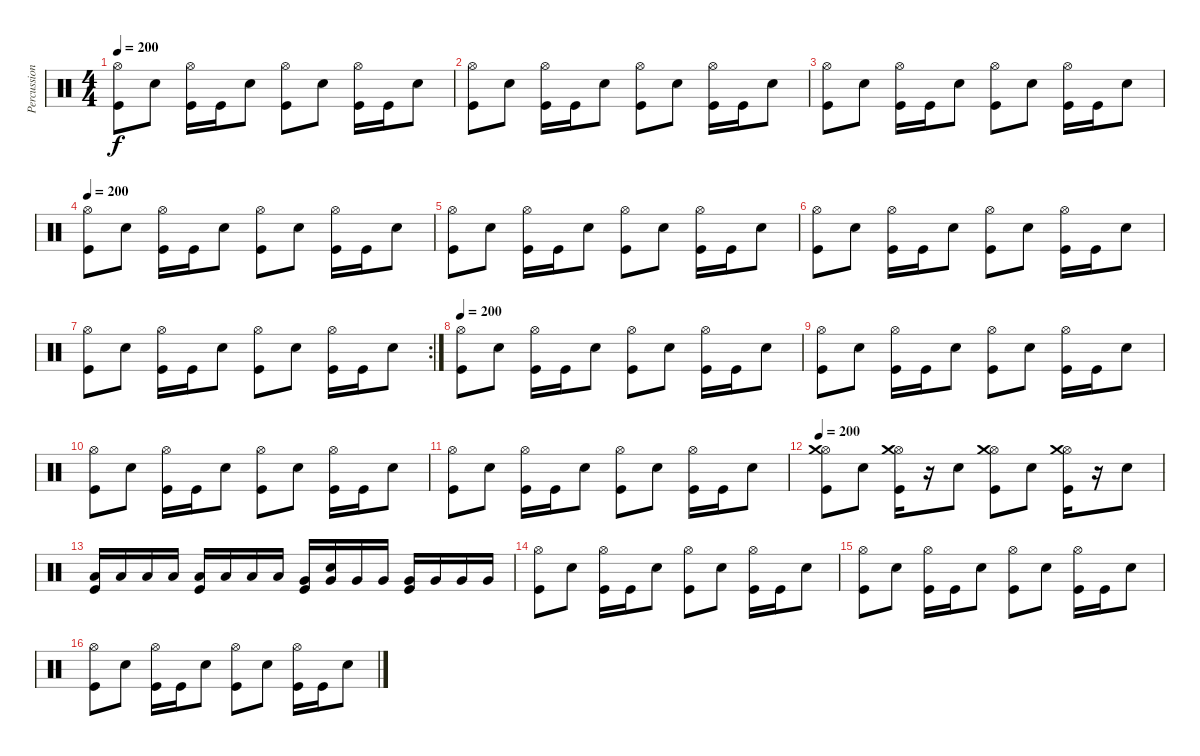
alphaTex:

\track ("Percussion" "Percussion") {instrument percussion}
\staff {score}
\articulation defaults
\ts (4 4)
\tempo 200
\clef neutral
\ks c
("Hi-Hat (open)" "Kick (hit)").8{dy f} "Electric Snare (hit)".8 ("Hi-Hat (open)" "Kick (hit)").16 "Kick (hit)".16 "Electric Snare (hit)".8 ("Hi-Hat (open)" "Kick (hit)").8 "Electric Snare (hit)".8 ("Hi-Hat (open)" "Kick (hit)").16 "Kick (hit)".16 "Electric Snare (hit)".8 |
("Hi-Hat (open)" "Kick (hit)").8 "Electric Snare (hit)".8 ("Hi-Hat (open)" "Kick (hit)").16 "Kick (hit)".16 "Electric Snare (hit)".8 ("Hi-Hat (open)" "Kick (hit)").8 "Electric Snare (hit)".8 ("Hi-Hat (open)" "Kick (hit)").16 "Kick (hit)".16 "Electric Snare (hit)".8 |
("Hi-Hat (open)" "Kick (hit)").8 "Electric Snare (hit)".8 ("Hi-Hat (open)" "Kick (hit)").16 "Kick (hit)".16 "Electric Snare (hit)".8 ("Hi-Hat (open)" "Kick (hit)").8 "Electric Snare (hit)".8 ("Hi-Hat (open)" "Kick (hit)").16 "Kick (hit)".16 "Electric Snare (hit)".8 |
\tempo 200
("Hi-Hat (open)" "Kick (hit)").8 "Electric Snare (hit)".8 ("Hi-Hat (open)" "Kick (hit)").16 "Kick (hit)".16 "Electric Snare (hit)".8 ("Hi-Hat (open)" "Kick (hit)").8 "Electric Snare (hit)".8 ("Hi-Hat (open)" "Kick (hit)").16 "Kick (hit)".16 "Electric Snare (hit)".8 |
("Hi-Hat (open)" "Kick (hit)").8 "Electric Snare (hit)".8 ("Hi-Hat (open)" "Kick (hit)").16 "Kick (hit)".16 "Electric Snare (hit)".8 ("Hi-Hat (open)" "Kick (hit)").8 "Electric Snare (hit)".8 ("Hi-Hat (open)" "Kick (hit)").16 "Kick (hit)".16 "Electric Snare (hit)".8 |
("Hi-Hat (open)" "Kick (hit)").8 "Electric Snare (hit)".8 ("Hi-Hat (open)" "Kick (hit)").16 "Kick (hit)".16 "Electric Snare (hit)".8 ("Hi-Hat (open)" "Kick (hit)").8 "Electric Snare (hit)".8 ("Hi-Hat (open)" "Kick (hit)").16 "Kick (hit)".16 "Electric Snare (hit)".8 |
\rc 2
("Hi-Hat (open)" "Kick (hit)").8 "Electric Snare (hit)".8 ("Hi-Hat (open)" "Kick (hit)").16 "Kick (hit)".16 "Electric Snare (hit)".8 ("Hi-Hat (open)" "Kick (hit)").8 "Electric Snare (hit)".8 ("Hi-Hat (open)" "Kick (hit)").16 "Kick (hit)".16 "Electric Snare (hit)".8 |
\tempo 200
("Hi-Hat (open)" "Kick (hit)").8 "Electric Snare (hit)".8 ("Hi-Hat (open)" "Kick (hit)").16 "Kick (hit)".16 "Electric Snare (hit)".8 ("Hi-Hat (open)" "Kick (hit)").8 "Electric Snare (hit)".8 ("Hi-Hat (open)" "Kick (hit)").16 "Kick (hit)".16 "Electric Snare (hit)".8 |
("Hi-Hat (open)" "Kick (hit)").8 "Electric Snare (hit)".8 ("Hi-Hat (open)" "Kick (hit)").16 "Kick (hit)".16 "Electric Snare (hit)".8 ("Hi-Hat (open)" "Kick (hit)").8 "Electric Snare (hit)".8 ("Hi-Hat (open)" "Kick (hit)").16 "Kick (hit)".16 "Electric Snare (hit)".8 |
("Hi-Hat (open)" "Kick (hit)").8 "Electric Snare (hit)".8 ("Hi-Hat (open)" "Kick (hit)").16 "Kick (hit)".16 "Electric Snare (hit)".8 ("Hi-Hat (open)" "Kick (hit)").8 "Electric Snare (hit)".8 ("Hi-Hat (open)" "Kick (hit)").16 "Kick (hit)".16 "Electric Snare (hit)".8 |
("Hi-Hat (open)" "Kick (hit)").8 "Electric Snare (hit)".8 ("Hi-Hat (open)" "Kick (hit)").16 "Kick (hit)".16 "Electric Snare (hit)".8 ("Hi-Hat (open)" "Kick (hit)").8 "Electric Snare (hit)".8 ("Hi-Hat (open)" "Kick (hit)").16 "Kick (hit)".16 "Electric Snare (hit)".8 |
\tempo 200
("Hi-Hat (open)" "Kick (hit)" "Crash medium (hit)").8 "Electric Snare (hit)".8 ("Hi-Hat (open)" "Kick (hit)" "Crash medium (hit)").16 r.16 "Electric Snare (hit)".8 ("Hi-Hat (open)" "Kick (hit)" "Crash medium (hit)").8 "Electric Snare (hit)".8 ("Hi-Hat (open)" "Kick (hit)" "Crash medium (hit)").16 r.16 "Electric Snare (hit)".8 |
("Low Tom (hit)" "Kick (hit)").16 "Low Tom (hit)".16 "Low Tom (hit)".16 "Low Tom (hit)".16 ("Low Tom (hit)" "Kick (hit)").16 "Low Tom (hit)".16 "Low Tom (hit)".16 "Low Tom (hit)".16 ("Very Low Tom (hit)" "Kick (hit)").16 ("Very Low Tom (hit)" "Snare (hit)").16 "Very Low Tom (hit)".16 "Very Low Tom (hit)".16 ("Very Low Tom (hit)" "Kick (hit)").16 "Very Low Tom (hit)".16 "Very Low Tom (hit)".16 "Very Low Tom (hit)".16 |
("Hi-Hat (open)" "Kick (hit)").8 "Electric Snare (hit)".8 ("Hi-Hat (open)" "Kick (hit)").16 "Kick (hit)".16 "Electric Snare (hit)".8 ("Hi-Hat (open)" "Kick (hit)").8 "Electric Snare (hit)".8 ("Hi-Hat (open)" "Kick (hit)").16 "Kick (hit)".16 "Electric Snare (hit)".8 |
("Hi-Hat (open)" "Kick (hit)").8 "Electric Snare (hit)".8 ("Hi-Hat (open)" "Kick (hit)").16 "Kick (hit)".16 "Electric Snare (hit)".8 ("Hi-Hat (open)" "Kick (hit)").8 "Electric Snare (hit)".8 ("Hi-Hat (open)" "Kick (hit)").16 "Kick (hit)".16 "Electric Snare (hit)".8 |
("Hi-Hat (open)" "Kick (hit)").8 "Electric Snare (hit)".8 ("Hi-Hat (open)" "Kick (hit)").16 "Kick (hit)".16 "Electric Snare (hit)".8 ("Hi-Hat (open)" "Kick (hit)").8 "Electric Snare (hit)".8 ("Hi-Hat (open)" "Kick (hit)").16 "Kick (hit)".16 "Electric Snare (hit)".8
